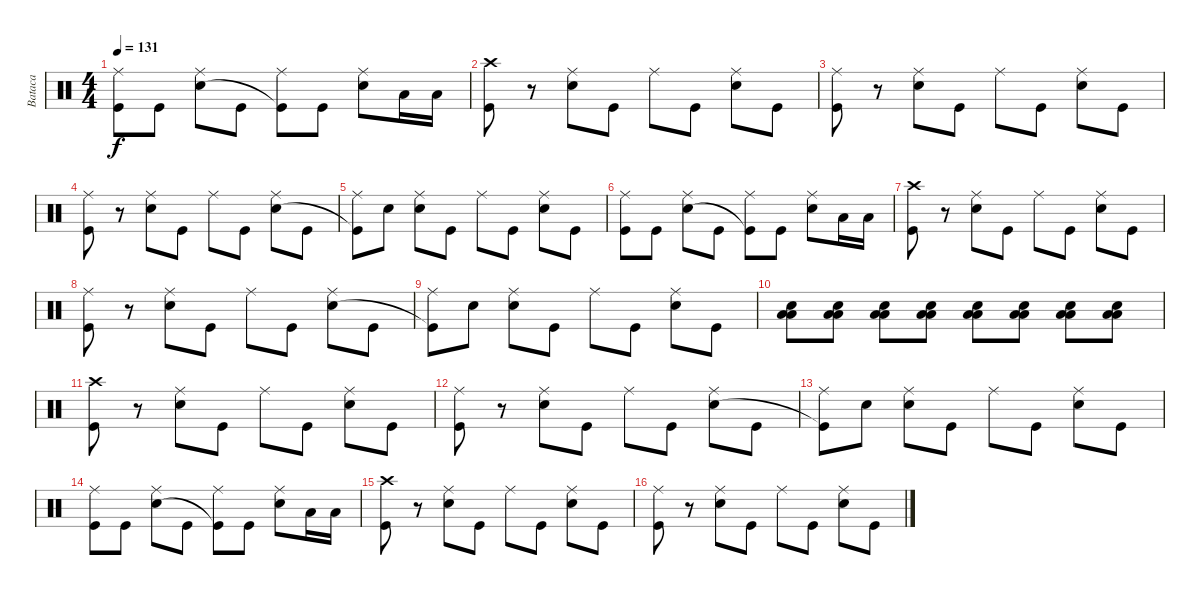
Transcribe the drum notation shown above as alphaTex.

\track ("Bataca" "Bataca") {instrument percussion}
\staff {score}
\articulation defaults
\ts (4 4)
\tempo 131
\clef neutral
\ks c
("Ride (middle)" "Kick (hit)").8{dy f} "Kick (hit)".8 ("Ride (middle)" "Snare (hit) 2").8 "Kick (hit)".8 ("Ride (middle)" "Kick (hit)"{t}).8 "Kick (hit)".8 ("Ride (middle)" "Snare (hit) 2").8 "Low Tom (hit)".16 "Low Tom (hit)".16 |
("Crash high (hit)" "Kick (hit)").8 r.8 ("Ride (middle)" "Snare (hit) 2").8 "Kick (hit)".8 "Ride (middle)".8 "Kick (hit)".8 ("Ride (middle)" "Snare (hit) 2").8 "Kick (hit)".8 |
("Ride (middle)" "Kick (hit)").8 r.8 ("Ride (middle)" "Snare (hit) 2").8 "Kick (hit)".8 "Ride (middle)".8 "Kick (hit)".8 ("Ride (middle)" "Snare (hit) 2").8 "Kick (hit)".8 |
("Ride (middle)" "Kick (hit)").8 r.8 ("Ride (middle)" "Snare (hit) 2").8 "Kick (hit)".8 "Ride (middle)".8 "Kick (hit)".8 ("Ride (middle)" "Snare (hit) 2").8 "Kick (hit)".8 |
("Ride (middle)" "Kick (hit)"{t}).8 "Snare (hit)".8 ("Ride (middle)" "Snare (hit) 2").8 "Kick (hit)".8 "Ride (middle)".8 "Kick (hit)".8 ("Ride (middle)" "Snare (hit) 2").8 "Kick (hit)".8 |
("Ride (middle)" "Kick (hit)").8 "Kick (hit)".8 ("Ride (middle)" "Snare (hit) 2").8 "Kick (hit)".8 ("Ride (middle)" "Kick (hit)"{t}).8 "Kick (hit)".8 ("Ride (middle)" "Snare (hit) 2").8 "Low Tom (hit)".16 "Low Tom (hit)".16 |
("Crash high (hit)" "Kick (hit)").8 r.8 ("Ride (middle)" "Snare (hit) 2").8 "Kick (hit)".8 "Ride (middle)".8 "Kick (hit)".8 ("Ride (middle)" "Snare (hit) 2").8 "Kick (hit)".8 |
("Ride (middle)" "Kick (hit)").8 r.8 ("Ride (middle)" "Snare (hit) 2").8 "Kick (hit)".8 "Ride (middle)".8 "Kick (hit)".8 ("Ride (middle)" "Snare (hit) 2").8 "Kick (hit)".8 |
("Ride (middle)" "Kick (hit)"{t}).8 "Snare (hit)".8 ("Ride (middle)" "Snare (hit) 2").8 "Kick (hit)".8 "Ride (middle)".8 "Kick (hit)".8 ("Ride (middle)" "Snare (hit) 2").8 "Kick (hit)".8 |
("Snare (hit) 2" "Low Tom (hit)" "Low Tom (hit)").8 ("Snare (hit) 2" "Low Tom (hit)" "Low Tom (hit)").8 ("Snare (hit) 2" "Low Tom (hit)" "Low Tom (hit)").8 ("Snare (hit) 2" "Low Tom (hit)" "Low Tom (hit)").8 ("Snare (hit) 2" "Low Tom (hit)" "Low Tom (hit)").8 ("Snare (hit) 2" "Low Tom (hit)" "Low Tom (hit)").8 ("Snare (hit) 2" "Low Tom (hit)" "Low Tom (hit)").8 ("Snare (hit) 2" "Low Tom (hit)" "Low Tom (hit)").8 |
("Crash high (hit)" "Kick (hit)").8 r.8 ("Ride (middle)" "Snare (hit) 2").8 "Kick (hit)".8 "Ride (middle)".8 "Kick (hit)".8 ("Ride (middle)" "Snare (hit) 2").8 "Kick (hit)".8 |
("Ride (middle)" "Kick (hit)").8 r.8 ("Ride (middle)" "Snare (hit) 2").8 "Kick (hit)".8 "Ride (middle)".8 "Kick (hit)".8 ("Ride (middle)" "Snare (hit) 2").8 "Kick (hit)".8 |
("Ride (middle)" "Kick (hit)"{t}).8 "Snare (hit)".8 ("Ride (middle)" "Snare (hit) 2").8 "Kick (hit)".8 "Ride (middle)".8 "Kick (hit)".8 ("Ride (middle)" "Snare (hit) 2").8 "Kick (hit)".8 |
("Ride (middle)" "Kick (hit)").8 "Kick (hit)".8 ("Ride (middle)" "Snare (hit) 2").8 "Kick (hit)".8 ("Ride (middle)" "Kick (hit)"{t}).8 "Kick (hit)".8 ("Ride (middle)" "Snare (hit) 2").8 "Low Tom (hit)".16 "Low Tom (hit)".16 |
("Crash high (hit)" "Kick (hit)").8 r.8 ("Ride (middle)" "Snare (hit) 2").8 "Kick (hit)".8 "Ride (middle)".8 "Kick (hit)".8 ("Ride (middle)" "Snare (hit) 2").8 "Kick (hit)".8 |
("Ride (middle)" "Kick (hit)").8 r.8 ("Ride (middle)" "Snare (hit) 2").8 "Kick (hit)".8 "Ride (middle)".8 "Kick (hit)".8 ("Ride (middle)" "Snare (hit) 2").8 "Kick (hit)".8
